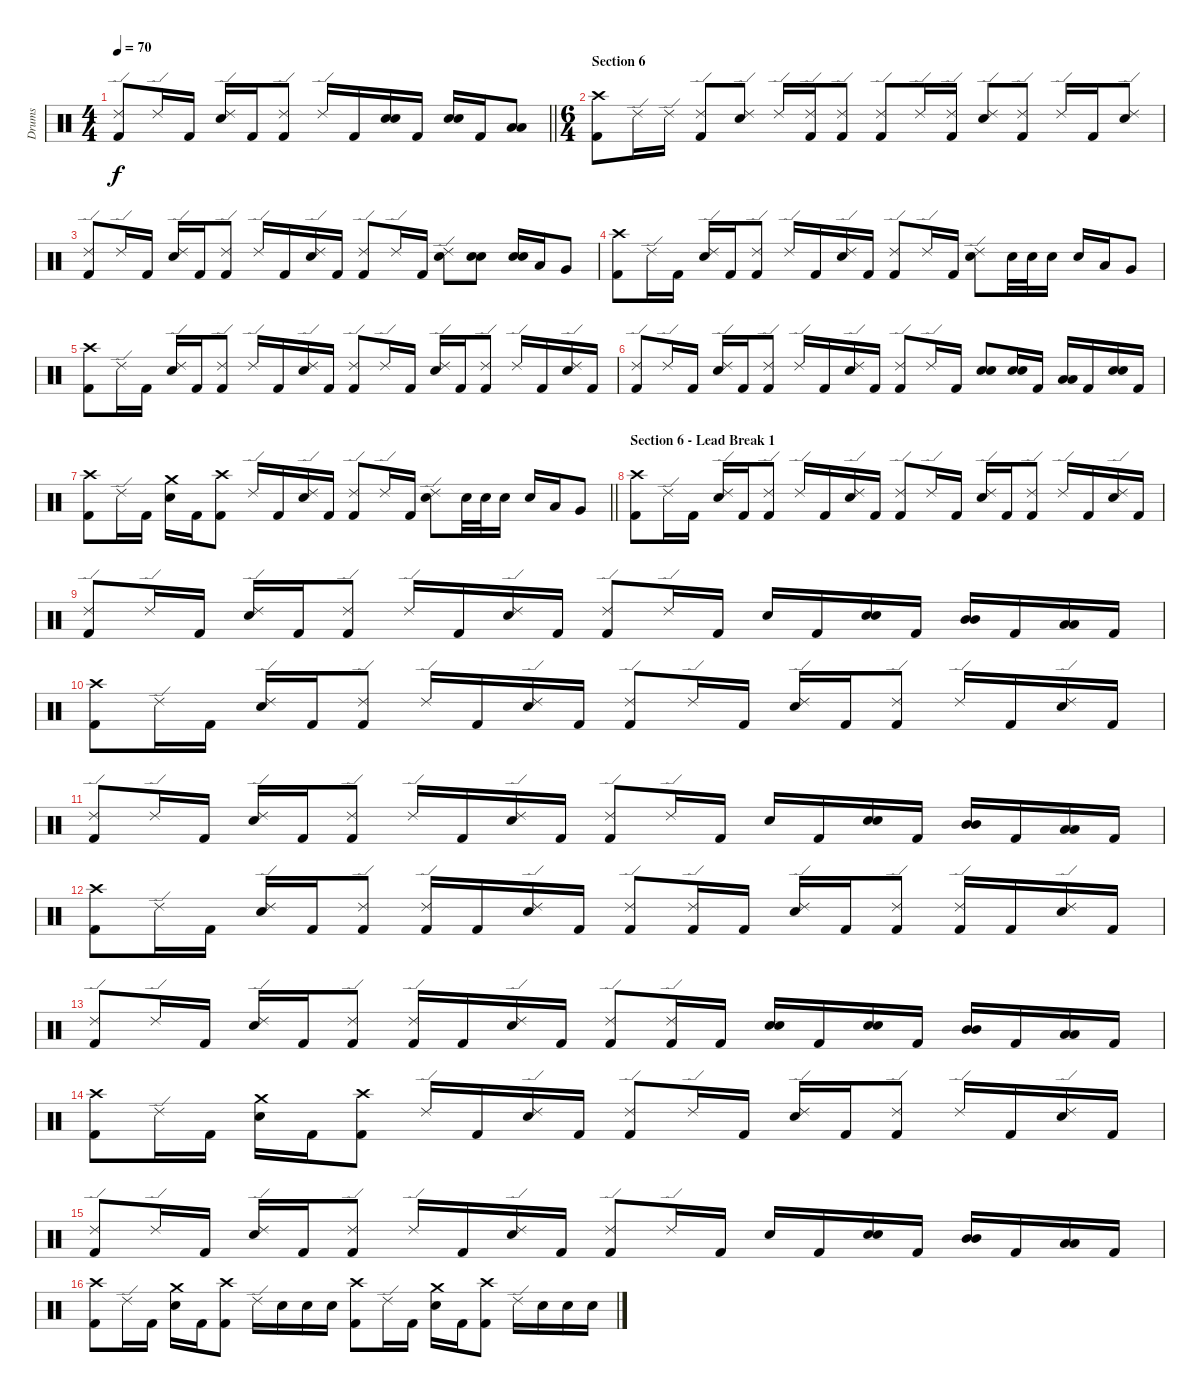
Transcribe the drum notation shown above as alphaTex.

\track ("Drums" "Drums") {instrument percussion}
\staff {score}
\articulation defaults
\ts (4 4)
\tempo 70
\clef neutral
\barLineRight lightlight
\ks c
("Ride (edge) 2" "Kick (hit) 2").8{dy f} "Ride (edge) 2".16 "Kick (hit) 2".16 ("Ride (edge) 2" "Electric Snare (hit)").16 "Kick (hit) 2".16 ("Ride (edge) 2" "Kick (hit) 2").8 "Ride (edge) 2".16 "Kick (hit) 2".16 ("Electric Snare (hit)" "Electric Snare (hit)").16{bu 60} "Kick (hit) 2".16 ("Electric Snare (hit)" "Electric Snare (hit)").16{bu 60} "Kick (hit) 2".16 ("Low Tom (hit)" "Low Tom (hit)").8{bu 60} |
\ts (6 4)
\section ("" "Section 6")
("Crash high (hit)" "Kick (hit) 2").8 "Ride (edge) 2".16 "Ride (edge) 2".16 ("Ride (edge) 2" "Kick (hit) 2").8 ("Ride (edge) 2" "Electric Snare (hit)").8 "Ride (edge) 2".16 ("Ride (edge) 2" "Kick (hit) 2").16 ("Ride (edge) 2" "Kick (hit) 2").8 ("Ride (edge) 2" "Kick (hit) 2").8 "Ride (edge) 2".16 ("Ride (edge) 2" "Kick (hit) 2").16 ("Ride (edge) 2" "Electric Snare (hit)").8 ("Ride (edge) 2" "Kick (hit) 2").8 "Ride (edge) 2".16 "Kick (hit) 2".16 ("Ride (edge) 2" "Electric Snare (hit)").8 |
("Ride (edge) 2" "Kick (hit) 2").8 "Ride (edge) 2".16 "Kick (hit) 2".16 ("Ride (edge) 2" "Electric Snare (hit)").16 "Kick (hit) 2".16 ("Ride (edge) 2" "Kick (hit) 2").8 "Ride (edge) 2".16 "Kick (hit) 2".16 ("Ride (edge) 2" "Electric Snare (hit)").16 "Kick (hit) 2".16 ("Ride (edge) 2" "Kick (hit) 2").8 "Ride (edge) 2".16 "Kick (hit) 2".16 ("Ride (edge) 2" "Electric Snare (hit)").8 ("Electric Snare (hit)" "Electric Snare (hit)").8{bu 60} ("Electric Snare (hit)" "Electric Snare (hit)").16{bu 60} "Low Tom (hit)".16 "Very Low Tom (hit)".8 |
("Crash high (hit)" "Kick (hit) 2").8 "Ride (edge) 2".16 "Kick (hit) 2".16 ("Ride (edge) 2" "Electric Snare (hit)").16 "Kick (hit) 2".16 ("Ride (edge) 2" "Kick (hit) 2").8 "Ride (edge) 2".16 "Kick (hit) 2".16 ("Ride (edge) 2" "Electric Snare (hit)").16 "Kick (hit) 2".16 ("Ride (edge) 2" "Kick (hit) 2").8 "Ride (edge) 2".16 "Kick (hit) 2".16 ("Ride (edge) 2" "Electric Snare (hit)").8 "Electric Snare (hit)".32 "Electric Snare (hit)".32 "Electric Snare (hit)".16 "Electric Snare (hit)".16 "Low Tom (hit)".16 "Very Low Tom (hit)".8 |
("Crash high (hit)" "Kick (hit) 2").8 "Ride (edge) 2".16 "Kick (hit) 2".16 ("Ride (edge) 2" "Electric Snare (hit)").16 "Kick (hit) 2".16 ("Ride (edge) 2" "Kick (hit) 2").8 "Ride (edge) 2".16 "Kick (hit) 2".16 ("Ride (edge) 2" "Electric Snare (hit)").16 "Kick (hit) 2".16 ("Ride (edge) 2" "Kick (hit) 2").8 "Ride (edge) 2".16 "Kick (hit) 2".16 ("Ride (edge) 2" "Electric Snare (hit)").16 "Kick (hit) 2".16 ("Ride (edge) 2" "Kick (hit) 2").8 "Ride (edge) 2".16 "Kick (hit) 2".16 ("Ride (edge) 2" "Electric Snare (hit)").16 "Kick (hit) 2".16 |
("Ride (edge) 2" "Kick (hit) 2").8 "Ride (edge) 2".16 "Kick (hit) 2".16 ("Ride (edge) 2" "Electric Snare (hit)").16 "Kick (hit) 2".16 ("Ride (edge) 2" "Kick (hit) 2").8 "Ride (edge) 2".16 "Kick (hit) 2".16 ("Ride (edge) 2" "Electric Snare (hit)").16 "Kick (hit) 2".16 ("Ride (edge) 2" "Kick (hit) 2").8 "Ride (edge) 2".16 "Kick (hit) 2".16 ("Electric Snare (hit)" "Electric Snare (hit)").8{bu 60} ("Electric Snare (hit)" "Electric Snare (hit)").16{bu 60} "Kick (hit) 2".16 ("Low Tom (hit)" "Low Tom (hit)").16{bu 60} "Kick (hit) 2".16 ("Electric Snare (hit)" "Electric Snare (hit)").16{bu 60} "Kick (hit) 2".16 |
\barLineRight lightlight
("Crash high (hit)" "Kick (hit) 2").8 "Ride (edge) 2".16 "Kick (hit) 2".16 ("Crash medium (hit)" "Electric Snare (hit)").16 "Kick (hit) 2".16 ("Crash high (hit)" "Kick (hit) 2").8 "Ride (edge) 2".16 "Kick (hit) 2".16 ("Ride (edge) 2" "Electric Snare (hit)").16 "Kick (hit) 2".16 ("Ride (edge) 2" "Kick (hit) 2").8 "Ride (edge) 2".16 "Kick (hit) 2".16 ("Ride (edge) 2" "Electric Snare (hit)").8 "Electric Snare (hit)".32 "Electric Snare (hit)".32 "Electric Snare (hit)".16 "Electric Snare (hit)".16 "Low Tom (hit)".16 "Very Low Tom (hit)".8 |
\section ("" "Section 6 - Lead Break 1")
("Crash high (hit)" "Kick (hit) 2").8 "Ride (edge) 2".16 "Kick (hit) 2".16 ("Ride (edge) 2" "Electric Snare (hit)").16 "Kick (hit) 2".16 ("Ride (edge) 2" "Kick (hit) 2").8 "Ride (edge) 2".16 "Kick (hit) 2".16 ("Ride (edge) 2" "Electric Snare (hit)").16 "Kick (hit) 2".16 ("Ride (edge) 2" "Kick (hit) 2").8 "Ride (edge) 2".16 "Kick (hit) 2".16 ("Ride (edge) 2" "Electric Snare (hit)").16 "Kick (hit) 2".16 ("Ride (edge) 2" "Kick (hit) 2").8 "Ride (edge) 2".16 "Kick (hit) 2".16 ("Ride (edge) 2" "Electric Snare (hit)").16 "Kick (hit) 2".16 |
("Ride (edge) 2" "Kick (hit) 2").8 "Ride (edge) 2".16 "Kick (hit) 2".16 ("Ride (edge) 2" "Electric Snare (hit)").16 "Kick (hit) 2".16 ("Ride (edge) 2" "Kick (hit) 2").8 "Ride (edge) 2".16 "Kick (hit) 2".16 ("Ride (edge) 2" "Electric Snare (hit)").16 "Kick (hit) 2".16 ("Ride (edge) 2" "Kick (hit) 2").8 "Ride (edge) 2".16 "Kick (hit) 2".16 "Electric Snare (hit)".16 "Kick (hit) 2".16 ("Electric Snare (hit)" "Electric Snare (hit)").16{bu 60} "Kick (hit) 2".16 ("Mid Tom (hit)" "Mid Tom (hit)").16{bu 60} "Kick (hit) 2".16 ("Low Tom (hit)" "Low Tom (hit)").16{bu 60} "Kick (hit) 2".16 |
("Crash high (hit)" "Kick (hit) 2").8 "Ride (edge) 2".16 "Kick (hit) 2".16 ("Ride (edge) 2" "Electric Snare (hit)").16 "Kick (hit) 2".16 ("Ride (edge) 2" "Kick (hit) 2").8 "Ride (edge) 2".16 "Kick (hit) 2".16 ("Ride (edge) 2" "Electric Snare (hit)").16 "Kick (hit) 2".16 ("Ride (edge) 2" "Kick (hit) 2").8 "Ride (edge) 2".16 "Kick (hit) 2".16 ("Ride (edge) 2" "Electric Snare (hit)").16 "Kick (hit) 2".16 ("Ride (edge) 2" "Kick (hit) 2").8 "Ride (edge) 2".16 "Kick (hit) 2".16 ("Ride (edge) 2" "Electric Snare (hit)").16 "Kick (hit) 2".16 |
("Ride (edge) 2" "Kick (hit) 2").8 "Ride (edge) 2".16 "Kick (hit) 2".16 ("Ride (edge) 2" "Electric Snare (hit)").16 "Kick (hit) 2".16 ("Ride (edge) 2" "Kick (hit) 2").8 "Ride (edge) 2".16 "Kick (hit) 2".16 ("Ride (edge) 2" "Electric Snare (hit)").16 "Kick (hit) 2".16 ("Ride (edge) 2" "Kick (hit) 2").8 "Ride (edge) 2".16 "Kick (hit) 2".16 "Electric Snare (hit)".16 "Kick (hit) 2".16 ("Electric Snare (hit)" "Electric Snare (hit)").16{bu 60} "Kick (hit) 2".16 ("Mid Tom (hit)" "Mid Tom (hit)").16{bu 60} "Kick (hit) 2".16 ("Low Tom (hit)" "Low Tom (hit)").16{bu 60} "Kick (hit) 2".16 |
("Crash high (hit)" "Kick (hit) 2").8 "Ride (edge) 2".16 "Kick (hit) 2".16 ("Ride (edge) 2" "Electric Snare (hit)").16 "Kick (hit) 2".16 ("Ride (edge) 2" "Kick (hit) 2").8 ("Ride (edge) 2" "Kick (hit) 2").16 "Kick (hit) 2".16 ("Ride (edge) 2" "Electric Snare (hit)").16 "Kick (hit) 2".16 ("Ride (edge) 2" "Kick (hit) 2").8 ("Ride (edge) 2" "Kick (hit) 2").16 "Kick (hit) 2".16 ("Ride (edge) 2" "Electric Snare (hit)").16 "Kick (hit) 2".16 ("Ride (edge) 2" "Kick (hit) 2").8 ("Ride (edge) 2" "Kick (hit) 2").16 "Kick (hit) 2".16 ("Ride (edge) 2" "Electric Snare (hit)").16 "Kick (hit) 2".16 |
("Ride (edge) 2" "Kick (hit) 2").8 "Ride (edge) 2".16 "Kick (hit) 2".16 ("Ride (edge) 2" "Electric Snare (hit)").16 "Kick (hit) 2".16 ("Ride (edge) 2" "Kick (hit) 2").8 ("Ride (edge) 2" "Kick (hit) 2").16 "Kick (hit) 2".16 ("Ride (edge) 2" "Electric Snare (hit)").16 "Kick (hit) 2".16 ("Ride (edge) 2" "Kick (hit) 2").8 ("Ride (edge) 2" "Kick (hit) 2").16 "Kick (hit) 2".16 ("Electric Snare (hit)" "Electric Snare (hit)").16{bu 60} "Kick (hit) 2".16 ("Electric Snare (hit)" "Electric Snare (hit)").16{bu 60} "Kick (hit) 2".16 ("Mid Tom (hit)" "Mid Tom (hit)").16{bu 60} "Kick (hit) 2".16 ("Low Tom (hit)" "Low Tom (hit)").16{bu 60} "Kick (hit) 2".16 |
("Crash high (hit)" "Kick (hit) 2").8 "Ride (edge) 2".16 "Kick (hit) 2".16 ("Crash medium (hit)" "Electric Snare (hit)").16 "Kick (hit) 2".16 ("Crash high (hit)" "Kick (hit) 2").8 "Ride (edge) 2".16 "Kick (hit) 2".16 ("Ride (edge) 2" "Electric Snare (hit)").16 "Kick (hit) 2".16 ("Ride (edge) 2" "Kick (hit) 2").8 "Ride (edge) 2".16 "Kick (hit) 2".16 ("Ride (edge) 2" "Electric Snare (hit)").16 "Kick (hit) 2".16 ("Ride (edge) 2" "Kick (hit) 2").8 "Ride (edge) 2".16 "Kick (hit) 2".16 ("Ride (edge) 2" "Electric Snare (hit)").16 "Kick (hit) 2".16 |
("Ride (edge) 2" "Kick (hit) 2").8 "Ride (edge) 2".16 "Kick (hit) 2".16 ("Ride (edge) 2" "Electric Snare (hit)").16 "Kick (hit) 2".16 ("Ride (edge) 2" "Kick (hit) 2").8 "Ride (edge) 2".16 "Kick (hit) 2".16 ("Ride (edge) 2" "Electric Snare (hit)").16 "Kick (hit) 2".16 ("Ride (edge) 2" "Kick (hit) 2").8 "Ride (edge) 2".16 "Kick (hit) 2".16 "Electric Snare (hit)".16 "Kick (hit) 2".16 ("Electric Snare (hit)" "Electric Snare (hit)").16{bu 60} "Kick (hit) 2".16 ("Mid Tom (hit)" "Mid Tom (hit)").16{bu 60} "Kick (hit) 2".16 ("Low Tom (hit)" "Low Tom (hit)").16{bu 60} "Kick (hit) 2".16 |
("Crash high (hit)" "Kick (hit) 2").8 "Ride (edge) 2".16 "Kick (hit) 2".16 ("Crash medium (hit)" "Electric Snare (hit)").16 "Kick (hit) 2".16 ("Crash high (hit)" "Kick (hit) 2").8 "Ride (edge) 2".16 "Electric Snare (hit)".16 "Electric Snare (hit)".16 "Electric Snare (hit)".16 ("Crash high (hit)" "Kick (hit) 2").8 "Ride (edge) 2".16 "Kick (hit) 2".16 ("Crash medium (hit)" "Electric Snare (hit)").16 "Kick (hit) 2".16 ("Crash high (hit)" "Kick (hit) 2").8 "Ride (edge) 2".16 "Electric Snare (hit)".16 "Electric Snare (hit)".16 "Electric Snare (hit)".16
